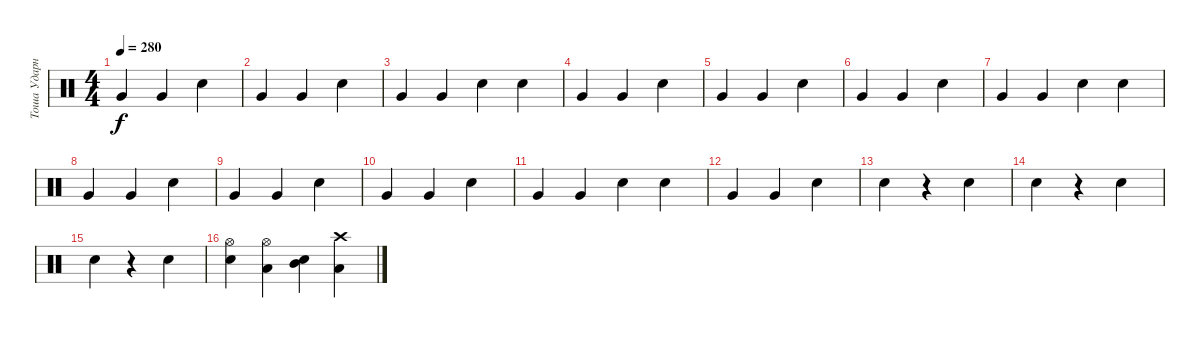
\track ("Тоша Ударные" "Тоша Ударн") {instrument percussion}
\staff {score}
\articulation defaults
\ts (4 4)
\tempo 280
\clef neutral
\ks c "Very Low Tom (hit)".4{dy f} "Very Low Tom (hit)".4 "Electric Snare (hit)".4
|
"Very Low Tom (hit)".4 "Very Low Tom (hit)".4 "Electric Snare (hit)".4 |
"Very Low Tom (hit)".4 "Very Low Tom (hit)".4 "Electric Snare (hit)".4 "Electric Snare (hit)".4 |
"Very Low Tom (hit)".4 "Very Low Tom (hit)".4 "Electric Snare (hit)".4 |
"Very Low Tom (hit)".4 "Very Low Tom (hit)".4 "Electric Snare (hit)".4 |
"Very Low Tom (hit)".4 "Very Low Tom (hit)".4 "Electric Snare (hit)".4 |
"Very Low Tom (hit)".4 "Very Low Tom (hit)".4 "Electric Snare (hit)".4 "Electric Snare (hit)".4 |
"Very Low Tom (hit)".4 "Very Low Tom (hit)".4 "Electric Snare (hit)".4 |
"Very Low Tom (hit)".4 "Very Low Tom (hit)".4 "Electric Snare (hit)".4 |
"Very Low Tom (hit)".4 "Very Low Tom (hit)".4 "Electric Snare (hit)".4 |
"Very Low Tom (hit)".4 "Very Low Tom (hit)".4 "Electric Snare (hit)".4 "Electric Snare (hit)".4 |
"Very Low Tom (hit)".4 "Very Low Tom (hit)".4 "Electric Snare (hit)".4 |
"Electric Snare (hit)".4 r.4 "Electric Snare (hit)".4 |
"Electric Snare (hit)".4 r.4 "Electric Snare (hit)".4 |
"Electric Snare (hit)".4 r.4 "Electric Snare (hit)".4 |
("Electric Snare (hit)" "Hi-Hat (open)").4 ("Low Tom (hit)" "Hi-Hat (open)").4 ("Electric Snare (hit)" "Mid Tom (hit)").4 ("Low Tom (hit)" "Crash high (hit)").4
